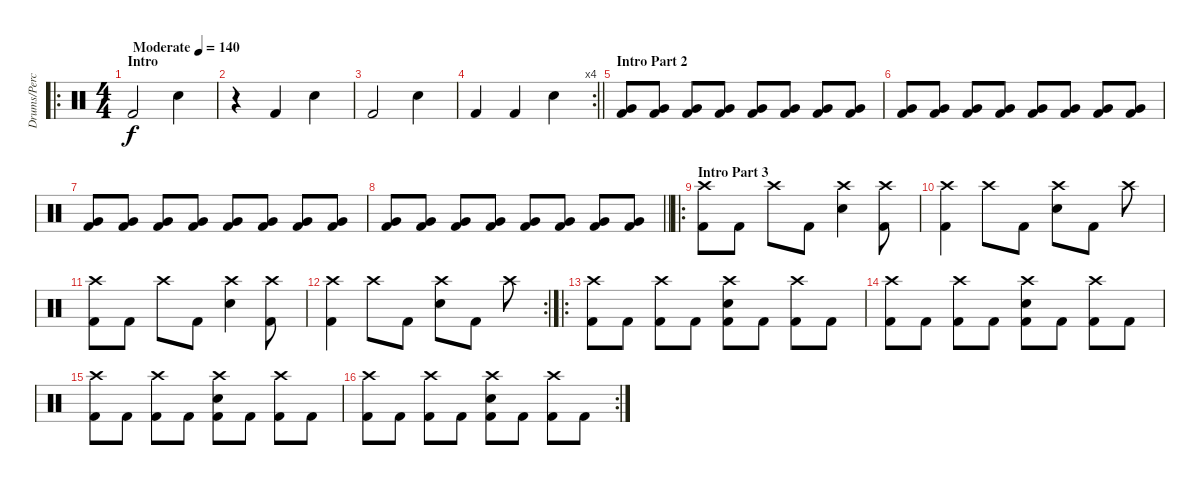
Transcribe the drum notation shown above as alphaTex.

\track ("Drums/Perc" "Drums/Perc") {instrument percussion}
\staff {score}
\articulation defaults
\ro
\ts (4 4)
\section ("" "Intro")
\tempo (140 "Moderate")
\clef neutral
\ks c "Kick (hit) 2".2{dy f volume 8} "Snare (hit) 2".4
|
r.4 "Kick (hit) 2".4 "Snare (hit) 2".4 |
"Kick (hit) 2".2 "Snare (hit) 2".4 |
\rc 4
\barLineRight lightlight "Kick (hit) 2".4 "Kick (hit) 2".4 "Snare (hit) 2".4
|
\section ("" "Intro Part 2")
("Very Low Tom (hit)" "Kick (hit) 2").8{volume 13} ("Very Low Tom (hit)" "Kick (hit) 2").8 ("Very Low Tom (hit)" "Kick (hit) 2").8 ("Very Low Tom (hit)" "Kick (hit) 2").8 ("Very Low Tom (hit)" "Kick (hit) 2").8 ("Very Low Tom (hit)" "Kick (hit) 2").8 ("Very Low Tom (hit)" "Kick (hit) 2").8 ("Very Low Tom (hit)" "Kick (hit) 2").8 |
("Very Low Tom (hit)" "Kick (hit) 2").8 ("Very Low Tom (hit)" "Kick (hit) 2").8 ("Very Low Tom (hit)" "Kick (hit) 2").8 ("Very Low Tom (hit)" "Kick (hit) 2").8 ("Very Low Tom (hit)" "Kick (hit) 2").8 ("Very Low Tom (hit)" "Kick (hit) 2").8 ("Very Low Tom (hit)" "Kick (hit) 2").8 ("Very Low Tom (hit)" "Kick (hit) 2").8 |
("Very Low Tom (hit)" "Kick (hit) 2").8 ("Very Low Tom (hit)" "Kick (hit) 2").8 ("Very Low Tom (hit)" "Kick (hit) 2").8 ("Very Low Tom (hit)" "Kick (hit) 2").8 ("Very Low Tom (hit)" "Kick (hit) 2").8 ("Very Low Tom (hit)" "Kick (hit) 2").8 ("Very Low Tom (hit)" "Kick (hit) 2").8 ("Very Low Tom (hit)" "Kick (hit) 2").8 |
\barLineRight lightlight
("Very Low Tom (hit)" "Kick (hit) 2").8 ("Very Low Tom (hit)" "Kick (hit) 2").8 ("Very Low Tom (hit)" "Kick (hit) 2").8 ("Very Low Tom (hit)" "Kick (hit) 2").8 ("Very Low Tom (hit)" "Kick (hit) 2").8 ("Very Low Tom (hit)" "Kick (hit) 2").8 ("Very Low Tom (hit)" "Kick (hit) 2").8 ("Very Low Tom (hit)" "Kick (hit) 2").8 |
\ro
\section ("" "Intro Part 3")
("Crash high (hit)" "Kick (hit) 2").8 "Kick (hit) 2".8 "Crash high (hit)".8 "Kick (hit) 2".8 ("Crash high (hit)" "Snare (hit) 2").4 ("Crash high (hit)" "Kick (hit) 2").8 |
("Crash high (hit)" "Kick (hit) 2").4 "Crash high (hit)".8 "Kick (hit) 2".8 ("Crash high (hit)" "Snare (hit) 2").8 "Kick (hit) 2".8 "Crash high (hit)".8 |
("Crash high (hit)" "Kick (hit) 2").8 "Kick (hit) 2".8 "Crash high (hit)".8 "Kick (hit) 2".8 ("Crash high (hit)" "Snare (hit) 2").4 ("Crash high (hit)" "Kick (hit) 2").8 |
\rc 2
("Crash high (hit)" "Kick (hit) 2").4 "Crash high (hit)".8 "Kick (hit) 2".8 ("Crash high (hit)" "Snare (hit) 2").8 "Kick (hit) 2".8 "Crash high (hit)".8 |
\ro
("Crash high (hit)" "Kick (hit) 2").8{volume 13} "Kick (hit) 2".8 ("Crash high (hit)" "Kick (hit) 2").8 "Kick (hit) 2".8 ("Snare (hit) 2" "Crash high (hit)" "Kick (hit) 2").8 "Kick (hit) 2".8 ("Crash high (hit)" "Kick (hit) 2").8 "Kick (hit) 2".8 |
("Crash high (hit)" "Kick (hit) 2").8 "Kick (hit) 2".8 ("Crash high (hit)" "Kick (hit) 2").8 "Kick (hit) 2".8 ("Snare (hit) 2" "Crash high (hit)" "Kick (hit) 2").8 "Kick (hit) 2".8 ("Crash high (hit)" "Kick (hit) 2").8 "Kick (hit) 2".8 |
("Crash high (hit)" "Kick (hit) 2").8 "Kick (hit) 2".8 ("Crash high (hit)" "Kick (hit) 2").8 "Kick (hit) 2".8 ("Snare (hit) 2" "Crash high (hit)" "Kick (hit) 2").8 "Kick (hit) 2".8 ("Crash high (hit)" "Kick (hit) 2").8 "Kick (hit) 2".8 |
\rc 2
("Crash high (hit)" "Kick (hit) 2").8 "Kick (hit) 2".8 ("Crash high (hit)" "Kick (hit) 2").8 "Kick (hit) 2".8 ("Snare (hit) 2" "Crash high (hit)" "Kick (hit) 2").8 "Kick (hit) 2".8 ("Crash high (hit)" "Kick (hit) 2").8 "Kick (hit) 2".8
